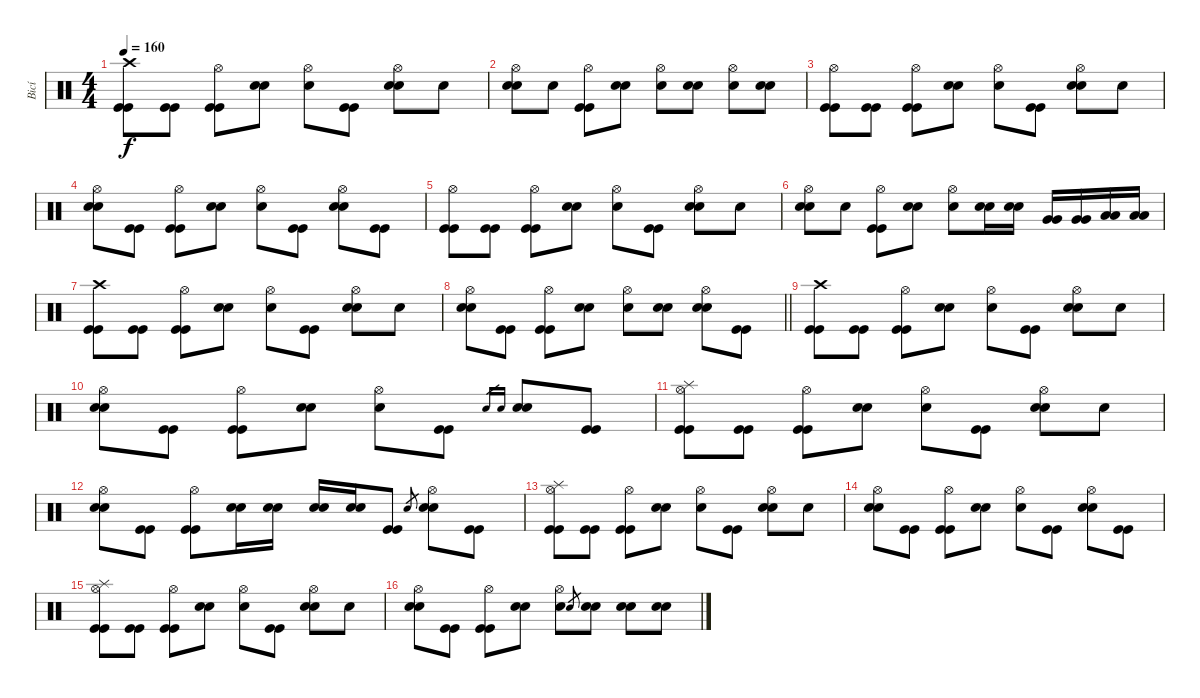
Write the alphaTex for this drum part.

\track ("Bicí" "Bicí") {instrument percussion}
\staff {score}
\articulation defaults
\ts (4 4)
\tempo 160
\clef neutral
\ks c
("Crash high (hit)" "Kick (hit)" "Kick (hit)").8{dy f} ("Kick (hit)" "Kick (hit)").8 ("Hi-Hat (open)" "Kick (hit)" "Kick (hit)").8 ("Electric Snare (hit)" "Electric Snare (hit)").8 ("Hi-Hat (open)" "Snare (hit)").8 ("Kick (hit)" "Kick (hit)").8 ("Hi-Hat (open)" "Electric Snare (hit)" "Electric Snare (hit)").8 "Snare (hit)".8 |
("Hi-Hat (open)" "Electric Snare (hit)" "Electric Snare (hit)").8 "Snare (hit)".8 ("Hi-Hat (open)" "Kick (hit)" "Kick (hit)").8 ("Electric Snare (hit)" "Electric Snare (hit)").8 ("Hi-Hat (open)" "Snare (hit)").8 ("Electric Snare (hit)" "Electric Snare (hit)").8 ("Hi-Hat (open)" "Snare (hit)").8 ("Electric Snare (hit)" "Electric Snare (hit)").8 |
("Hi-Hat (open)" "Kick (hit)" "Kick (hit)").8 ("Kick (hit)" "Kick (hit)").8 ("Hi-Hat (open)" "Kick (hit)" "Kick (hit)").8 ("Electric Snare (hit)" "Electric Snare (hit)").8 ("Hi-Hat (open)" "Snare (hit)").8 ("Kick (hit)" "Kick (hit)").8 ("Hi-Hat (open)" "Electric Snare (hit)" "Electric Snare (hit)").8 "Snare (hit)".8 |
("Hi-Hat (open)" "Electric Snare (hit)" "Electric Snare (hit)").8 ("Kick (hit)" "Kick (hit)").8 ("Hi-Hat (open)" "Kick (hit)" "Kick (hit)").8 ("Electric Snare (hit)" "Electric Snare (hit)").8 ("Hi-Hat (open)" "Snare (hit)").8 ("Kick (hit)" "Kick (hit)").8 ("Hi-Hat (open)" "Electric Snare (hit)" "Electric Snare (hit)").8 ("Kick (hit)" "Kick (hit)").8 |
("Hi-Hat (open)" "Kick (hit)" "Kick (hit)").8 ("Kick (hit)" "Kick (hit)").8 ("Hi-Hat (open)" "Kick (hit)" "Kick (hit)").8 ("Electric Snare (hit)" "Electric Snare (hit)").8 ("Hi-Hat (open)" "Snare (hit)").8 ("Kick (hit)" "Kick (hit)").8 ("Hi-Hat (open)" "Electric Snare (hit)" "Electric Snare (hit)").8 "Snare (hit)".8 |
("Hi-Hat (open)" "Electric Snare (hit)" "Electric Snare (hit)").8 "Snare (hit)".8 ("Hi-Hat (open)" "Kick (hit)" "Kick (hit)").8 ("Electric Snare (hit)" "Electric Snare (hit)").8 ("Hi-Hat (open)" "Snare (hit)").8 ("Electric Snare (hit)" "Electric Snare (hit)").16 ("Electric Snare (hit)" "Electric Snare (hit)").16 ("Very Low Tom (hit)" "Very Low Tom (hit)").16 ("Very Low Tom (hit)" "Very Low Tom (hit)").16 ("Low Floor Tom (hit)" "Low Floor Tom (hit)").16 ("Low Floor Tom (hit)" "Low Floor Tom (hit)").16 |
("Crash high (hit)" "Kick (hit)" "Kick (hit)").8 ("Kick (hit)" "Kick (hit)").8 ("Hi-Hat (open)" "Kick (hit)" "Kick (hit)").8 ("Electric Snare (hit)" "Electric Snare (hit)").8 ("Hi-Hat (open)" "Snare (hit)").8 ("Kick (hit)" "Kick (hit)").8 ("Hi-Hat (open)" "Electric Snare (hit)" "Electric Snare (hit)").8 "Snare (hit)".8 |
\barLineRight lightlight
("Hi-Hat (open)" "Electric Snare (hit)" "Electric Snare (hit)").8 ("Kick (hit)" "Kick (hit)").8 ("Hi-Hat (open)" "Kick (hit)" "Kick (hit)").8 ("Electric Snare (hit)" "Electric Snare (hit)").8 ("Hi-Hat (open)" "Snare (hit)").8 ("Electric Snare (hit)" "Electric Snare (hit)").8 ("Hi-Hat (open)" "Electric Snare (hit)" "Electric Snare (hit)").8 ("Kick (hit)" "Kick (hit)").8 |
\section ("" "")
("Crash high (hit)" "Kick (hit)" "Kick (hit)").8 ("Kick (hit)" "Kick (hit)").8 ("Hi-Hat (open)" "Kick (hit)" "Kick (hit)").8 ("Electric Snare (hit)" "Electric Snare (hit)").8 ("Hi-Hat (open)" "Snare (hit)").8 ("Kick (hit)" "Kick (hit)").8 ("Hi-Hat (open)" "Electric Snare (hit)" "Electric Snare (hit)").8 "Snare (hit)".8 |
("Hi-Hat (open)" "Electric Snare (hit)" "Electric Snare (hit)").8 ("Kick (hit)" "Kick (hit)").8 ("Hi-Hat (open)" "Kick (hit)" "Kick (hit)").8 ("Electric Snare (hit)" "Electric Snare (hit)").8 ("Hi-Hat (open)" "Snare (hit)").8 ("Kick (hit)" "Kick (hit)").8 "Electric Snare (hit)".16{gr} "Electric Snare (hit)".16{gr} ("Electric Snare (hit)" "Electric Snare (hit)").8 ("Kick (hit)" "Kick (hit)").8 |
("Hi-Hat (open)" "Splash (hit)" "Kick (hit)" "Kick (hit)").8 ("Kick (hit)" "Kick (hit)").8 ("Hi-Hat (open)" "Kick (hit)" "Kick (hit)").8 ("Electric Snare (hit)" "Electric Snare (hit)").8 ("Hi-Hat (open)" "Snare (hit)").8 ("Kick (hit)" "Kick (hit)").8 ("Hi-Hat (open)" "Electric Snare (hit)" "Electric Snare (hit)").8 "Snare (hit)".8 |
("Hi-Hat (open)" "Electric Snare (hit)" "Electric Snare (hit)").8 ("Kick (hit)" "Kick (hit)").8 ("Hi-Hat (open)" "Kick (hit)" "Kick (hit)").8 ("Electric Snare (hit)" "Electric Snare (hit)").16 ("Electric Snare (hit)" "Electric Snare (hit)").16 ("Electric Snare (hit)" "Electric Snare (hit)").16 ("Electric Snare (hit)" "Electric Snare (hit)").16 ("Kick (hit)" "Kick (hit)").8 "Electric Snare (hit)".8{gr} ("Hi-Hat (open)" "Electric Snare (hit)" "Electric Snare (hit)").8 ("Kick (hit)" "Kick (hit)").8 |
("Hi-Hat (open)" "Splash (hit)" "Kick (hit)" "Kick (hit)").8 ("Kick (hit)" "Kick (hit)").8 ("Hi-Hat (open)" "Kick (hit)" "Kick (hit)").8 ("Electric Snare (hit)" "Electric Snare (hit)").8 ("Hi-Hat (open)" "Snare (hit)").8 ("Kick (hit)" "Kick (hit)").8 ("Hi-Hat (open)" "Electric Snare (hit)" "Electric Snare (hit)").8 "Snare (hit)".8 |
("Hi-Hat (open)" "Electric Snare (hit)" "Electric Snare (hit)").8 ("Kick (hit)" "Kick (hit)").8 ("Hi-Hat (open)" "Kick (hit)" "Kick (hit)").8 ("Electric Snare (hit)" "Electric Snare (hit)").8 ("Hi-Hat (open)" "Snare (hit)").8 ("Kick (hit)" "Kick (hit)").8 ("Hi-Hat (open)" "Electric Snare (hit)" "Electric Snare (hit)").8 ("Kick (hit)" "Kick (hit)").8 |
("Hi-Hat (open)" "Splash (hit)" "Kick (hit)" "Kick (hit)").8 ("Kick (hit)" "Kick (hit)").8 ("Hi-Hat (open)" "Kick (hit)" "Kick (hit)").8 ("Electric Snare (hit)" "Electric Snare (hit)").8 ("Hi-Hat (open)" "Snare (hit)").8 ("Kick (hit)" "Kick (hit)").8 ("Hi-Hat (open)" "Electric Snare (hit)" "Electric Snare (hit)").8 "Snare (hit)".8 |
("Hi-Hat (open)" "Electric Snare (hit)" "Electric Snare (hit)").8 ("Kick (hit)" "Kick (hit)").8 ("Hi-Hat (open)" "Kick (hit)" "Kick (hit)").8 ("Electric Snare (hit)" "Electric Snare (hit)").8 ("Hi-Hat (open)" "Snare (hit)").8 "Electric Snare (hit)".8{gr} ("Electric Snare (hit)" "Electric Snare (hit)").8 ("Electric Snare (hit)" "Electric Snare (hit)").8 ("Electric Snare (hit)" "Electric Snare (hit)").8
